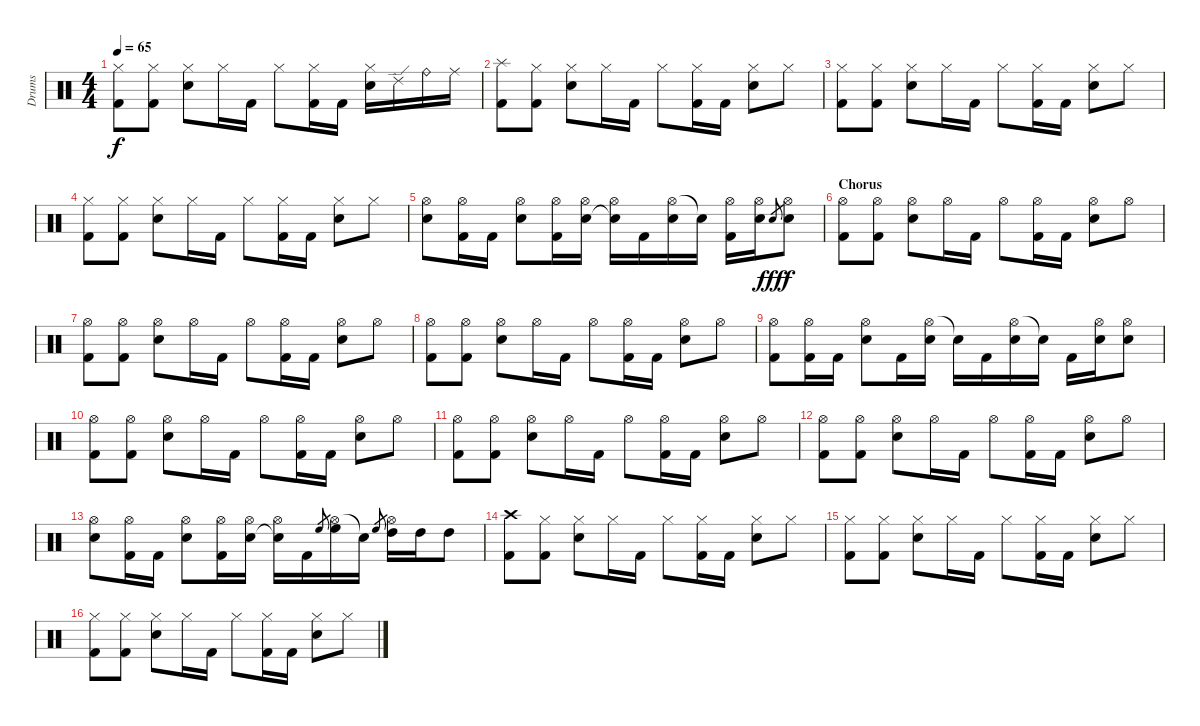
\track ("Drums" "Drums") {instrument percussion}
\staff {score}
\articulation defaults
\ts (4 4)
\tempo 65
\clef neutral
\ks c
("Hi-Hat (closed)" "Kick (hit) 2").8{dy f} ("Hi-Hat (closed)" "Kick (hit) 2").8 ("Hi-Hat (closed)" "Snare (hit) 2").8 "Hi-Hat (closed)".16 "Kick (hit) 2".16 "Hi-Hat (closed)".8 ("Hi-Hat (closed)" "Kick (hit) 2").16 "Kick (hit) 2".16 ("Hi-Hat (closed)" "Snare (hit) 2").16 "Ride (edge) 2".16 "Ride (bell)".16 "Ride (middle)".16 |
("Splash (hit)" "Kick (hit) 2").8 ("Hi-Hat (closed)" "Kick (hit) 2").8 ("Hi-Hat (closed)" "Snare (hit) 2").8 "Hi-Hat (closed)".16 "Kick (hit) 2".16 "Hi-Hat (closed)".8 ("Hi-Hat (closed)" "Kick (hit) 2").16 "Kick (hit) 2".16 ("Hi-Hat (closed)" "Snare (hit) 2").8 "Hi-Hat (closed)".8 |
("Hi-Hat (closed)" "Kick (hit) 2").8 ("Hi-Hat (closed)" "Kick (hit) 2").8 ("Hi-Hat (closed)" "Snare (hit) 2").8 "Hi-Hat (closed)".16 "Kick (hit) 2".16 "Hi-Hat (closed)".8 ("Hi-Hat (closed)" "Kick (hit) 2").16 "Kick (hit) 2".16 ("Hi-Hat (closed)" "Snare (hit) 2").8 "Hi-Hat (closed)".8 |
("Hi-Hat (closed)" "Kick (hit) 2").8 ("Hi-Hat (closed)" "Kick (hit) 2").8 ("Hi-Hat (closed)" "Snare (hit) 2").8 "Hi-Hat (closed)".16 "Kick (hit) 2".16 "Hi-Hat (closed)".8 ("Hi-Hat (closed)" "Kick (hit) 2").16 "Kick (hit) 2".16 ("Hi-Hat (closed)" "Snare (hit) 2").8 "Hi-Hat (closed)".8 |
("Hi-Hat (open)" "Snare (hit) 2").8 ("Hi-Hat (open)" "Kick (hit) 2").16 "Kick (hit) 2".16 ("Hi-Hat (open)" "Snare (hit) 2").8 ("Hi-Hat (open)" "Kick (hit) 2").16 ("Hi-Hat (open)" "Snare (hit) 2").16 ("Hi-Hat (open)" "Snare (hit)"{t}).16 "Kick (hit) 2".16 ("Hi-Hat (open)" "Snare (hit) 2").16 "Snare (hit)"{t}.16 ("Hi-Hat (open)" "Kick (hit) 2").16 ("Hi-Hat (open)" "Snare (hit) 2").16 "Snare (hit) 2"{sl}.8{gr dy fff} ("Hi-Hat (open)" "Snare (hit) 2").8{dy f} |
\section ("" "Chorus")
("Hi-Hat (open)" "Kick (hit) 2").8 ("Hi-Hat (open)" "Kick (hit) 2").8 ("Hi-Hat (open)" "Snare (hit) 2").8 "Hi-Hat (open)".16 "Kick (hit) 2".16 "Hi-Hat (open)".8 ("Hi-Hat (open)" "Kick (hit) 2").16 "Kick (hit) 2".16 ("Hi-Hat (open)" "Snare (hit) 2").8 "Hi-Hat (open)".8 |
("Hi-Hat (open)" "Kick (hit) 2").8 ("Hi-Hat (open)" "Kick (hit) 2").8 ("Hi-Hat (open)" "Snare (hit) 2").8 "Hi-Hat (open)".16 "Kick (hit) 2".16 "Hi-Hat (open)".8 ("Hi-Hat (open)" "Kick (hit) 2").16 "Kick (hit) 2".16 ("Hi-Hat (open)" "Snare (hit) 2").8 "Hi-Hat (open)".8 |
("Hi-Hat (open)" "Kick (hit) 2").8 ("Hi-Hat (open)" "Kick (hit) 2").8 ("Hi-Hat (open)" "Snare (hit) 2").8 "Hi-Hat (open)".16 "Kick (hit) 2".16 "Hi-Hat (open)".8 ("Hi-Hat (open)" "Kick (hit) 2").16 "Kick (hit) 2".16 ("Hi-Hat (open)" "Snare (hit) 2").8 "Hi-Hat (open)".8 |
("Hi-Hat (open)" "Kick (hit) 2").8 ("Hi-Hat (open)" "Kick (hit) 2").16 "Kick (hit) 2".16 ("Hi-Hat (open)" "Snare (hit) 2").8 "Kick (hit) 2".16 ("Hi-Hat (open)" "Snare (hit) 2").16 "Snare (hit)"{t}.16 "Kick (hit) 2".16 ("Hi-Hat (open)" "Snare (hit) 2").16 "Snare (hit)"{t}.16 "Kick (hit) 2".16 ("Hi-Hat (open)" "Snare (hit) 2").16 ("Hi-Hat (open)" "Snare (hit) 2").8 |
("Hi-Hat (open)" "Kick (hit) 2").8 ("Hi-Hat (open)" "Kick (hit) 2").8 ("Hi-Hat (open)" "Snare (hit) 2").8 "Hi-Hat (open)".16 "Kick (hit) 2".16 "Hi-Hat (open)".8 ("Hi-Hat (open)" "Kick (hit) 2").16 "Kick (hit) 2".16 ("Hi-Hat (open)" "Snare (hit) 2").8 "Hi-Hat (open)".8 |
("Hi-Hat (open)" "Kick (hit) 2").8 ("Hi-Hat (open)" "Kick (hit) 2").8 ("Hi-Hat (open)" "Snare (hit) 2").8 "Hi-Hat (open)".16 "Kick (hit) 2".16 "Hi-Hat (open)".8 ("Hi-Hat (open)" "Kick (hit) 2").16 "Kick (hit) 2".16 ("Hi-Hat (open)" "Snare (hit) 2").8 "Hi-Hat (open)".8 |
("Hi-Hat (open)" "Kick (hit) 2").8 ("Hi-Hat (open)" "Kick (hit) 2").8 ("Hi-Hat (open)" "Snare (hit) 2").8 "Hi-Hat (open)".16 "Kick (hit) 2".16 "Hi-Hat (open)".8 ("Hi-Hat (open)" "Kick (hit) 2").16 "Kick (hit) 2".16 ("Hi-Hat (open)" "Snare (hit) 2").8 "Hi-Hat (open)".8 |
("Hi-Hat (open)" "Snare (hit) 2").8 ("Hi-Hat (open)" "Kick (hit) 2").16 "Kick (hit) 2".16 ("Hi-Hat (open)" "Snare (hit) 2").8 ("Hi-Hat (open)" "Kick (hit) 2").16 ("Hi-Hat (open)" "Snare (hit) 2").16 ("Hi-Hat (open)" "Snare (hit)"{t}).16 "Kick (hit) 2".16 "High Floor Tom (hit)".8{gr} ("Hi-Hat (open)" "High Floor Tom (hit)").16 "Snare (hit)"{t}.16 "High Floor Tom (hit)".8{gr} ("Hi-Hat (open)" "High Tom (hit)").16 "High Tom (hit)".16 "High Tom (hit)".8 |
("Crash high (hit)" "Kick (hit) 2").8 ("Hi-Hat (closed)" "Kick (hit) 2").8 ("Hi-Hat (closed)" "Snare (hit) 2").8 "Hi-Hat (closed)".16 "Kick (hit) 2".16 "Hi-Hat (closed)".8 ("Hi-Hat (closed)" "Kick (hit) 2").16 "Kick (hit) 2".16 ("Hi-Hat (closed)" "Snare (hit) 2").8 "Hi-Hat (closed)".8 |
("Hi-Hat (closed)" "Kick (hit) 2").8 ("Hi-Hat (closed)" "Kick (hit) 2").8 ("Hi-Hat (closed)" "Snare (hit) 2").8 "Hi-Hat (closed)".16 "Kick (hit) 2".16 "Hi-Hat (closed)".8 ("Hi-Hat (closed)" "Kick (hit) 2").16 "Kick (hit) 2".16 ("Hi-Hat (closed)" "Snare (hit) 2").8 "Hi-Hat (closed)".8 |
("Hi-Hat (closed)" "Kick (hit) 2").8 ("Hi-Hat (closed)" "Kick (hit) 2").8 ("Hi-Hat (closed)" "Snare (hit) 2").8 "Hi-Hat (closed)".16 "Kick (hit) 2".16 "Hi-Hat (closed)".8 ("Hi-Hat (closed)" "Kick (hit) 2").16 "Kick (hit) 2".16 ("Hi-Hat (closed)" "Snare (hit) 2").8 "Hi-Hat (closed)".8
